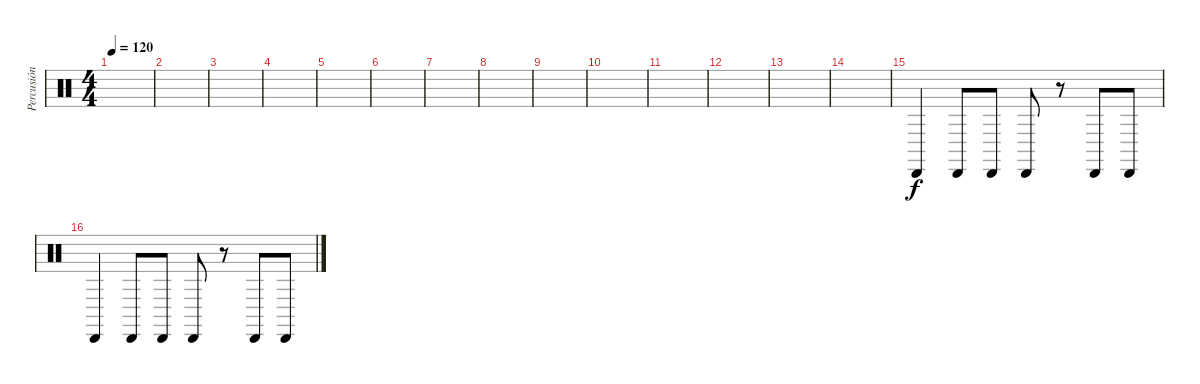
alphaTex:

\track ("Percusión" "Percusión") {instrument percussion}
\staff {score}
\articulation defaults
\ts (4 4)
\tempo 120
\clef neutral
\ks c
|
|
|
|
|
|
|
|
|
|
|
|
|
|
"Cabasa (hit)".4 "Cabasa (hit)".8 "Cabasa (hit)".8 "Cabasa (hit)".8 r.8 "Cabasa (hit)".8 "Cabasa (hit)".8 |
"Cabasa (hit)".4 "Cabasa (hit)".8 "Cabasa (hit)".8 "Cabasa (hit)".8 r.8 "Cabasa (hit)".8 "Cabasa (hit)".8
